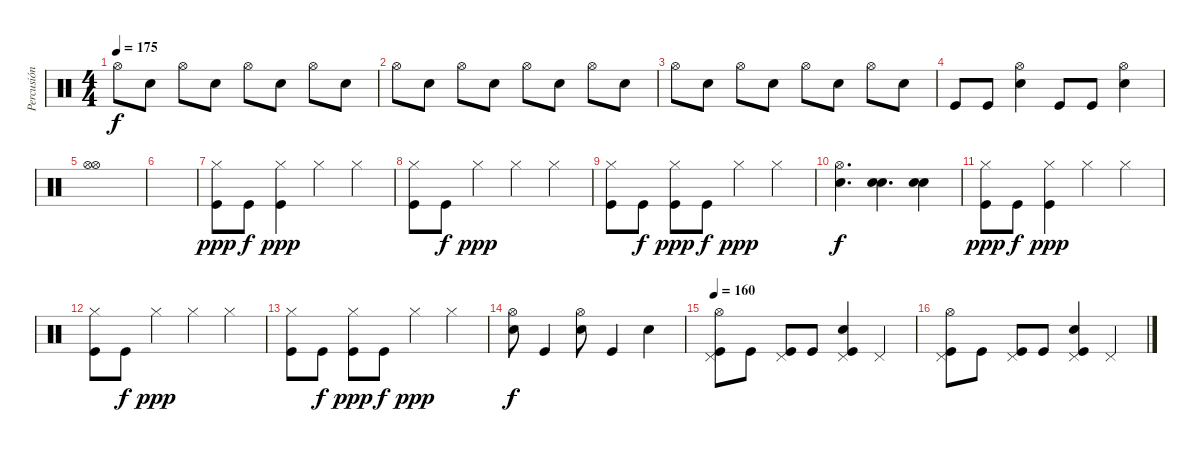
\track ("Percusión" "Percusión") {instrument percussion}
\staff {score}
\articulation defaults
\ts (4 4)
\tempo 175
\clef neutral
\ks c "Hi-Hat (open)".8{dy f} "Snare (hit) 2".8 "Hi-Hat (open)".8 "Snare (hit) 2".8 "Hi-Hat (open)".8 "Snare (hit) 2".8 "Hi-Hat (open)".8 "Snare (hit) 2".8
|
"Hi-Hat (open)".8 "Snare (hit) 2".8 "Hi-Hat (open)".8 "Snare (hit) 2".8 "Hi-Hat (open)".8 "Snare (hit) 2".8 "Hi-Hat (open)".8 "Snare (hit) 2".8 |
"Hi-Hat (open)".8 "Snare (hit) 2".8 "Hi-Hat (open)".8 "Snare (hit) 2".8 "Hi-Hat (open)".8 "Snare (hit) 2".8 "Hi-Hat (open)".8 "Snare (hit) 2".8 |
"Kick (hit)".8 "Kick (hit)".8 ("Snare (hit) 2" "Hi-Hat (open)").4 "Kick (hit)".8 "Kick (hit)".8 ("Snare (hit) 2" "Hi-Hat (open)").4 |
("Hi-Hat (open)" "Hi-Hat (open)").1 |
|
("Kick (hit)" "Hi-Hat (closed)").8{dy ppp} "Kick (hit)".8{dy f} ("Kick (hit)" "Hi-Hat (closed)").4{dy ppp} "Hi-Hat (closed)".4 "Hi-Hat (closed)".4 |
("Kick (hit)" "Hi-Hat (closed)").8 "Kick (hit)".8{dy f} "Hi-Hat (closed)".4{dy ppp} "Hi-Hat (closed)".4 "Hi-Hat (closed)".4 |
("Kick (hit)" "Hi-Hat (closed)").8 "Kick (hit)".8{dy f} ("Kick (hit)" "Hi-Hat (closed)").8{dy ppp} "Kick (hit)".8{dy f} "Hi-Hat (closed)".4{dy ppp} "Hi-Hat (closed)".4 |
("Snare (hit) 2" "Hi-Hat (open)").4{d dy f} ("Snare (hit) 2" "Snare (hit) 2").4{d} ("Snare (hit) 2" "Snare (hit) 2").4 |
("Kick (hit)" "Hi-Hat (closed)").8{dy ppp} "Kick (hit)".8{dy f} ("Kick (hit)" "Hi-Hat (closed)").4{dy ppp} "Hi-Hat (closed)".4 "Hi-Hat (closed)".4 |
("Kick (hit)" "Hi-Hat (closed)").8 "Kick (hit)".8{dy f} "Hi-Hat (closed)".4{dy ppp} "Hi-Hat (closed)".4 "Hi-Hat (closed)".4 |
("Kick (hit)" "Hi-Hat (closed)").8 "Kick (hit)".8{dy f} ("Kick (hit)" "Hi-Hat (closed)").8{dy ppp} "Kick (hit)".8{dy f} "Hi-Hat (closed)".4{dy ppp} "Hi-Hat (closed)".4 |
("Snare (hit) 2" "Hi-Hat (open)").8{dy f} "Kick (hit)".4 ("Snare (hit) 2" "Hi-Hat (open)").8 "Kick (hit)".4 "Snare (hit) 2".4 |
\tempo 160
("Kick (hit)" "Hi-Hat (open)" "Pedal Hi-Hat (hit)").8 "Kick (hit)".8 ("Kick (hit)" "Pedal Hi-Hat (hit)").8 "Kick (hit)".8 ("Kick (hit)" "Snare (hit) 2" "Pedal Hi-Hat (hit)").4 "Pedal Hi-Hat (hit)".4 |
("Kick (hit)" "Hi-Hat (open)" "Pedal Hi-Hat (hit)").8 "Kick (hit)".8 ("Kick (hit)" "Pedal Hi-Hat (hit)").8 "Kick (hit)".8 ("Kick (hit)" "Snare (hit) 2" "Pedal Hi-Hat (hit)").4 "Pedal Hi-Hat (hit)".4
